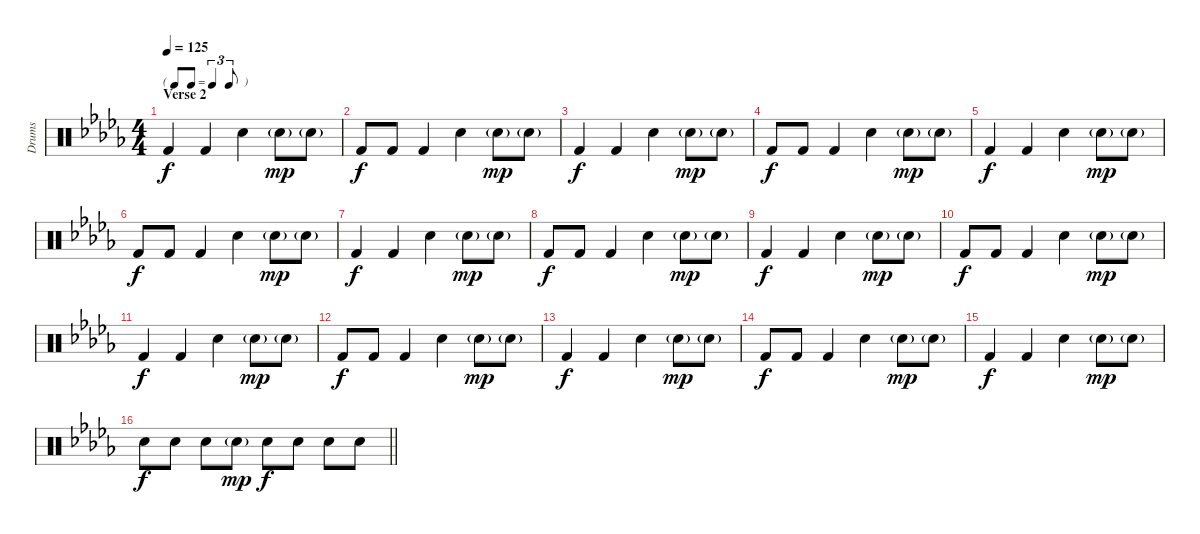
\track ("Drums" "Drums") {instrument percussion}
\staff {score}
\articulation defaults
\ts (4 4)
\tf triplet8th
\section ("" "Verse 2")
\tempo 125
\clef neutral
\ks db "Kick (hit) 2".4{dy f} "Kick (hit) 2".4 "Snare (hit) 2".4 "Snare (hit) 2"{g}.8{dy mp} "Snare (hit) 2"{g}.8
|
"Kick (hit) 2".8{dy f} "Kick (hit) 2".8 "Kick (hit) 2".4 "Snare (hit) 2".4 "Snare (hit) 2"{g}.8{dy mp} "Snare (hit) 2"{g}.8 |
"Kick (hit) 2".4{dy f} "Kick (hit) 2".4 "Snare (hit) 2".4 "Snare (hit) 2"{g}.8{dy mp} "Snare (hit) 2"{g}.8 |
"Kick (hit) 2".8{dy f} "Kick (hit) 2".8 "Kick (hit) 2".4 "Snare (hit) 2".4 "Snare (hit) 2"{g}.8{dy mp} "Snare (hit) 2"{g}.8 |
"Kick (hit) 2".4{dy f} "Kick (hit) 2".4 "Snare (hit) 2".4 "Snare (hit) 2"{g}.8{dy mp} "Snare (hit) 2"{g}.8 |
"Kick (hit) 2".8{dy f} "Kick (hit) 2".8 "Kick (hit) 2".4 "Snare (hit) 2".4 "Snare (hit) 2"{g}.8{dy mp} "Snare (hit) 2"{g}.8 |
"Kick (hit) 2".4{dy f} "Kick (hit) 2".4 "Snare (hit) 2".4 "Snare (hit) 2"{g}.8{dy mp} "Snare (hit) 2"{g}.8 |
"Kick (hit) 2".8{dy f} "Kick (hit) 2".8 "Kick (hit) 2".4 "Snare (hit) 2".4 "Snare (hit) 2"{g}.8{dy mp} "Snare (hit) 2"{g}.8 |
"Kick (hit) 2".4{dy f} "Kick (hit) 2".4 "Snare (hit) 2".4 "Snare (hit) 2"{g}.8{dy mp} "Snare (hit) 2"{g}.8 |
"Kick (hit) 2".8{dy f} "Kick (hit) 2".8 "Kick (hit) 2".4 "Snare (hit) 2".4 "Snare (hit) 2"{g}.8{dy mp} "Snare (hit) 2"{g}.8 |
"Kick (hit) 2".4{dy f} "Kick (hit) 2".4 "Snare (hit) 2".4 "Snare (hit) 2"{g}.8{dy mp} "Snare (hit) 2"{g}.8 |
"Kick (hit) 2".8{dy f} "Kick (hit) 2".8 "Kick (hit) 2".4 "Snare (hit) 2".4 "Snare (hit) 2"{g}.8{dy mp} "Snare (hit) 2"{g}.8 |
"Kick (hit) 2".4{dy f} "Kick (hit) 2".4 "Snare (hit) 2".4 "Snare (hit) 2"{g}.8{dy mp} "Snare (hit) 2"{g}.8 |
"Kick (hit) 2".8{dy f} "Kick (hit) 2".8 "Kick (hit) 2".4 "Snare (hit) 2".4 "Snare (hit) 2"{g}.8{dy mp} "Snare (hit) 2"{g}.8 |
"Kick (hit) 2".4{dy f} "Kick (hit) 2".4 "Snare (hit) 2".4 "Snare (hit) 2"{g}.8{dy mp} "Snare (hit) 2"{g}.8 |
\barLineRight lightlight "Snare (hit) 2".8{dy f} "Snare (hit) 2".8 "Snare (hit) 2".8 "Snare (hit) 2"{g}.8{dy mp} "Snare (hit) 2".8{dy f} "Snare (hit) 2".8 "Snare (hit) 2".8 "Snare (hit) 2".8
